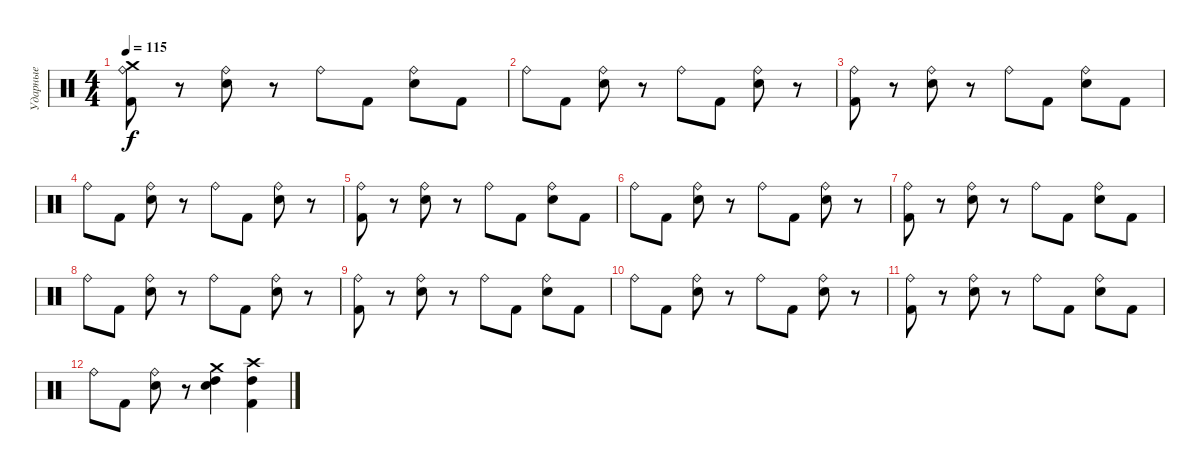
\track ("Ударные" "Ударные") {instrument percussion}
\staff {score}
\articulation defaults
\ts (4 4)
\tempo 115
\clef neutral
\ks c
("Ride (bell)" "Crash medium (hit)" "Kick (hit) 2").8{dy f} r.8 ("Ride (bell)" "Snare (hit) 2").8 r.8 "Ride (bell)".8 "Kick (hit) 2".8 ("Ride (bell)" "Snare (hit) 2").8 "Kick (hit) 2".8 |
"Ride (bell)".8 "Kick (hit) 2".8 ("Ride (bell)" "Snare (hit) 2").8 r.8 "Ride (bell)".8 "Kick (hit) 2".8 ("Ride (bell)" "Snare (hit) 2").8 r.8 |
("Ride (bell)" "Kick (hit) 2").8 r.8 ("Ride (bell)" "Snare (hit) 2").8 r.8 "Ride (bell)".8 "Kick (hit) 2".8 ("Ride (bell)" "Snare (hit) 2").8 "Kick (hit) 2".8 |
"Ride (bell)".8 "Kick (hit) 2".8 ("Ride (bell)" "Snare (hit) 2").8 r.8 "Ride (bell)".8 "Kick (hit) 2".8 ("Ride (bell)" "Snare (hit) 2").8 r.8 |
("Ride (bell)" "Kick (hit) 2").8 r.8 ("Ride (bell)" "Snare (hit) 2").8 r.8 "Ride (bell)".8 "Kick (hit) 2".8 ("Ride (bell)" "Snare (hit) 2").8 "Kick (hit) 2".8 |
"Ride (bell)".8 "Kick (hit) 2".8 ("Ride (bell)" "Snare (hit) 2").8 r.8 "Ride (bell)".8 "Kick (hit) 2".8 ("Ride (bell)" "Snare (hit) 2").8 r.8 |
("Ride (bell)" "Kick (hit) 2").8 r.8 ("Ride (bell)" "Snare (hit) 2").8 r.8 "Ride (bell)".8 "Kick (hit) 2".8 ("Ride (bell)" "Snare (hit) 2").8 "Kick (hit) 2".8 |
"Ride (bell)".8 "Kick (hit) 2".8 ("Ride (bell)" "Snare (hit) 2").8 r.8 "Ride (bell)".8 "Kick (hit) 2".8 ("Ride (bell)" "Snare (hit) 2").8 r.8 |
("Ride (bell)" "Kick (hit) 2").8 r.8 ("Ride (bell)" "Snare (hit) 2").8 r.8 "Ride (bell)".8 "Kick (hit) 2".8 ("Ride (bell)" "Snare (hit) 2").8 "Kick (hit) 2".8 |
"Ride (bell)".8 "Kick (hit) 2".8 ("Ride (bell)" "Snare (hit) 2").8 r.8 "Ride (bell)".8 "Kick (hit) 2".8 ("Ride (bell)" "Snare (hit) 2").8 r.8 |
("Ride (bell)" "Kick (hit) 2").8 r.8 ("Ride (bell)" "Snare (hit) 2").8 r.8 "Ride (bell)".8 "Kick (hit) 2".8 ("Ride (bell)" "Snare (hit) 2").8 "Kick (hit) 2".8 |
"Ride (bell)".8 "Kick (hit) 2".8 ("Ride (bell)" "Snare (hit) 2").8 r.8 ("Crash medium (hit)" "High Tom (hit)" "Snare (hit) 2").4 ("Crash high (hit)" "High Tom (hit)" "Kick (hit) 2").4
